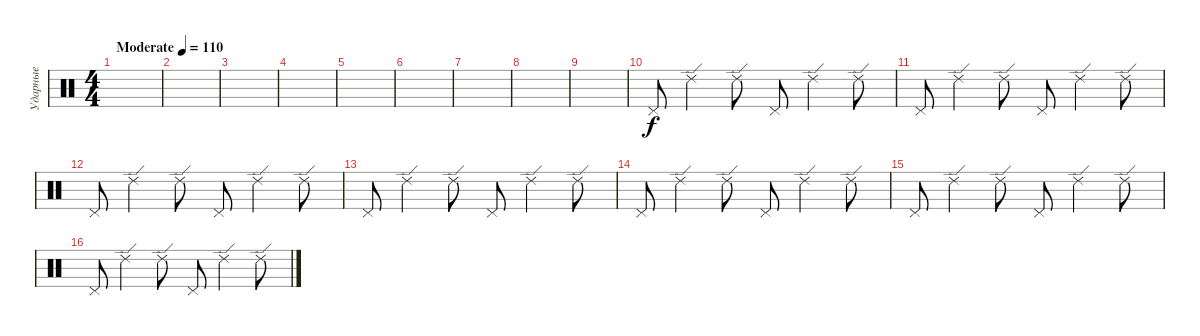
\track ("Ударные" "Ударные") {instrument percussion}
\staff {score}
\articulation defaults
\ts (4 4)
\tempo (110 "Moderate")
\clef neutral
\ks c
|
|
|
|
|
|
|
|
|
"Pedal Hi-Hat (hit)".8 "Ride (edge) 2".4 "Ride (edge) 2".8 "Pedal Hi-Hat (hit)".8 "Ride (edge) 2".4 "Ride (edge) 2".8 |
"Pedal Hi-Hat (hit)".8 "Ride (edge) 2".4 "Ride (edge) 2".8 "Pedal Hi-Hat (hit)".8 "Ride (edge) 2".4 "Ride (edge) 2".8 |
"Pedal Hi-Hat (hit)".8 "Ride (edge) 2".4 "Ride (edge) 2".8 "Pedal Hi-Hat (hit)".8 "Ride (edge) 2".4 "Ride (edge) 2".8 |
"Pedal Hi-Hat (hit)".8 "Ride (edge) 2".4 "Ride (edge) 2".8 "Pedal Hi-Hat (hit)".8 "Ride (edge) 2".4 "Ride (edge) 2".8 |
"Pedal Hi-Hat (hit)".8 "Ride (edge) 2".4 "Ride (edge) 2".8 "Pedal Hi-Hat (hit)".8 "Ride (edge) 2".4 "Ride (edge) 2".8 |
"Pedal Hi-Hat (hit)".8 "Ride (edge) 2".4 "Ride (edge) 2".8 "Pedal Hi-Hat (hit)".8 "Ride (edge) 2".4 "Ride (edge) 2".8 |
"Pedal Hi-Hat (hit)".8 "Ride (edge) 2".4 "Ride (edge) 2".8 "Pedal Hi-Hat (hit)".8 "Ride (edge) 2".4 "Ride (edge) 2".8
